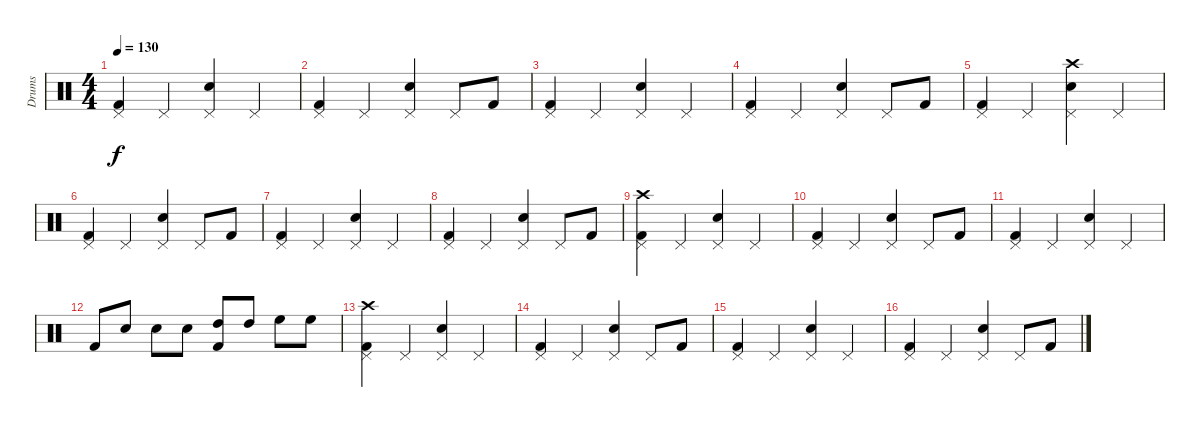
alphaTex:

\track ("Drums" "Drums") {instrument percussion}
\staff {score}
\articulation defaults
\ts (4 4)
\tempo 130
\clef neutral
\ks c
("Pedal Hi-Hat (hit)" "Kick (hit) 2").4{dy f} "Pedal Hi-Hat (hit)".4 ("Pedal Hi-Hat (hit)" "Snare (hit) 2").4 "Pedal Hi-Hat (hit)".4 |
("Pedal Hi-Hat (hit)" "Kick (hit) 2").4 "Pedal Hi-Hat (hit)".4 ("Pedal Hi-Hat (hit)" "Snare (hit) 2").4 "Pedal Hi-Hat (hit)".8 "Kick (hit) 2".8 |
("Pedal Hi-Hat (hit)" "Kick (hit) 2").4 "Pedal Hi-Hat (hit)".4 ("Pedal Hi-Hat (hit)" "Snare (hit) 2").4 "Pedal Hi-Hat (hit)".4 |
("Pedal Hi-Hat (hit)" "Kick (hit) 2").4 "Pedal Hi-Hat (hit)".4 ("Pedal Hi-Hat (hit)" "Snare (hit) 2").4 "Pedal Hi-Hat (hit)".8 "Kick (hit) 2".8 |
("Pedal Hi-Hat (hit)" "Kick (hit) 2").4 "Pedal Hi-Hat (hit)".4 ("Pedal Hi-Hat (hit)" "Crash high (hit)" "Snare (hit) 2").4 "Pedal Hi-Hat (hit)".4 |
("Pedal Hi-Hat (hit)" "Kick (hit) 2").4 "Pedal Hi-Hat (hit)".4 ("Pedal Hi-Hat (hit)" "Snare (hit) 2").4 "Pedal Hi-Hat (hit)".8 "Kick (hit) 2".8 |
("Pedal Hi-Hat (hit)" "Kick (hit) 2").4 "Pedal Hi-Hat (hit)".4 ("Pedal Hi-Hat (hit)" "Snare (hit) 2").4 "Pedal Hi-Hat (hit)".4 |
("Pedal Hi-Hat (hit)" "Kick (hit) 2").4 "Pedal Hi-Hat (hit)".4 ("Pedal Hi-Hat (hit)" "Snare (hit) 2").4 "Pedal Hi-Hat (hit)".8 "Kick (hit) 2".8 |
("Pedal Hi-Hat (hit)" "Crash high (hit)" "Kick (hit) 2").4 "Pedal Hi-Hat (hit)".4 ("Pedal Hi-Hat (hit)" "Snare (hit) 2").4 "Pedal Hi-Hat (hit)".4 |
("Pedal Hi-Hat (hit)" "Kick (hit) 2").4 "Pedal Hi-Hat (hit)".4 ("Pedal Hi-Hat (hit)" "Snare (hit) 2").4 "Pedal Hi-Hat (hit)".8 "Kick (hit) 2".8 |
("Pedal Hi-Hat (hit)" "Kick (hit) 2").4 "Pedal Hi-Hat (hit)".4 ("Pedal Hi-Hat (hit)" "Snare (hit) 2").4 "Pedal Hi-Hat (hit)".4 |
"Kick (hit) 2".8 "Snare (hit) 2".8 "Snare (hit) 2".8 "Snare (hit) 2".8 ("High Tom (hit)" "Kick (hit) 2").8 "High Tom (hit)".8 "High Floor Tom (hit)".8 "High Floor Tom (hit)".8 |
("Pedal Hi-Hat (hit)" "Crash high (hit)" "Kick (hit) 2").4 "Pedal Hi-Hat (hit)".4 ("Pedal Hi-Hat (hit)" "Snare (hit) 2").4 "Pedal Hi-Hat (hit)".4 |
("Pedal Hi-Hat (hit)" "Kick (hit) 2").4 "Pedal Hi-Hat (hit)".4 ("Pedal Hi-Hat (hit)" "Snare (hit) 2").4 "Pedal Hi-Hat (hit)".8 "Kick (hit) 2".8 |
("Pedal Hi-Hat (hit)" "Kick (hit) 2").4 "Pedal Hi-Hat (hit)".4 ("Pedal Hi-Hat (hit)" "Snare (hit) 2").4 "Pedal Hi-Hat (hit)".4 |
("Pedal Hi-Hat (hit)" "Kick (hit) 2").4 "Pedal Hi-Hat (hit)".4 ("Pedal Hi-Hat (hit)" "Snare (hit) 2").4 "Pedal Hi-Hat (hit)".8 "Kick (hit) 2".8
